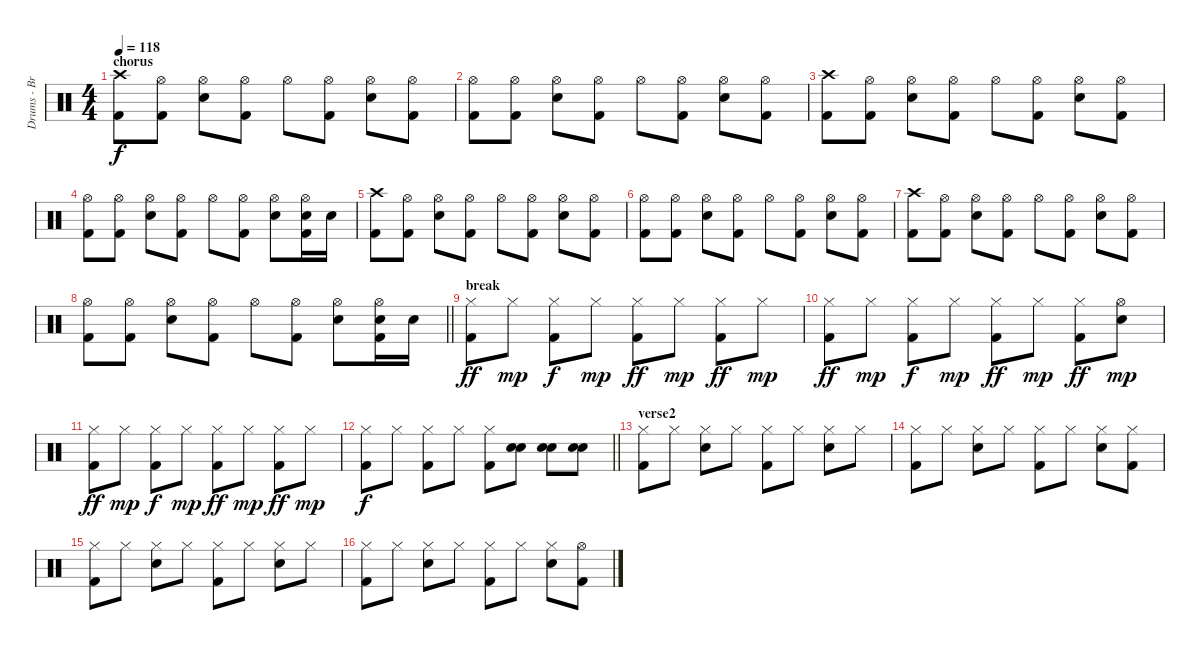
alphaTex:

\track ("Drums - Brian Young" "Drums - Br") {instrument percussion}
\staff {score}
\articulation defaults
\ts (4 4)
\section ("" "chorus")
\tempo 118
\clef neutral
\ks c
("Crash high (hit)" "Kick (hit) 2").8{dy f} ("Hi-Hat (open)" "Kick (hit) 2").8 ("Hi-Hat (open)" "Electric Snare (hit)").8 ("Hi-Hat (open)" "Kick (hit) 2").8 "Hi-Hat (open)".8 ("Hi-Hat (open)" "Kick (hit) 2").8 ("Hi-Hat (open)" "Electric Snare (hit)").8 ("Hi-Hat (open)" "Kick (hit) 2").8 |
("Hi-Hat (open)" "Kick (hit) 2").8 ("Hi-Hat (open)" "Kick (hit) 2").8 ("Hi-Hat (open)" "Electric Snare (hit)").8 ("Hi-Hat (open)" "Kick (hit) 2").8 "Hi-Hat (open)".8 ("Hi-Hat (open)" "Kick (hit) 2").8 ("Hi-Hat (open)" "Electric Snare (hit)").8 ("Hi-Hat (open)" "Kick (hit) 2").8 |
("Crash high (hit)" "Kick (hit) 2").8 ("Hi-Hat (open)" "Kick (hit) 2").8 ("Hi-Hat (open)" "Electric Snare (hit)").8 ("Hi-Hat (open)" "Kick (hit) 2").8 "Hi-Hat (open)".8 ("Hi-Hat (open)" "Kick (hit) 2").8 ("Hi-Hat (open)" "Electric Snare (hit)").8 ("Hi-Hat (open)" "Kick (hit) 2").8 |
("Hi-Hat (open)" "Kick (hit) 2").8 ("Hi-Hat (open)" "Kick (hit) 2").8 ("Hi-Hat (open)" "Electric Snare (hit)").8 ("Hi-Hat (open)" "Kick (hit) 2").8 "Hi-Hat (open)".8 ("Hi-Hat (open)" "Kick (hit) 2").8 ("Hi-Hat (open)" "Electric Snare (hit)").8 ("Hi-Hat (open)" "Electric Snare (hit)" "Kick (hit) 2").16 "Electric Snare (hit)".16 |
("Crash high (hit)" "Kick (hit) 2").8 ("Hi-Hat (open)" "Kick (hit) 2").8 ("Hi-Hat (open)" "Electric Snare (hit)").8 ("Hi-Hat (open)" "Kick (hit) 2").8 "Hi-Hat (open)".8 ("Hi-Hat (open)" "Kick (hit) 2").8 ("Hi-Hat (open)" "Electric Snare (hit)").8 ("Hi-Hat (open)" "Kick (hit) 2").8 |
("Hi-Hat (open)" "Kick (hit) 2").8 ("Hi-Hat (open)" "Kick (hit) 2").8 ("Hi-Hat (open)" "Electric Snare (hit)").8 ("Hi-Hat (open)" "Kick (hit) 2").8 "Hi-Hat (open)".8 ("Hi-Hat (open)" "Kick (hit) 2").8 ("Hi-Hat (open)" "Electric Snare (hit)").8 ("Hi-Hat (open)" "Kick (hit) 2").8 |
("Crash high (hit)" "Kick (hit) 2").8 ("Hi-Hat (open)" "Kick (hit) 2").8 ("Hi-Hat (open)" "Electric Snare (hit)").8 ("Hi-Hat (open)" "Kick (hit) 2").8 "Hi-Hat (open)".8 ("Hi-Hat (open)" "Kick (hit) 2").8 ("Hi-Hat (open)" "Electric Snare (hit)").8 ("Hi-Hat (open)" "Kick (hit) 2").8 |
\barLineRight lightlight
("Hi-Hat (open)" "Kick (hit) 2").8 ("Hi-Hat (open)" "Kick (hit) 2").8 ("Hi-Hat (open)" "Electric Snare (hit)").8 ("Hi-Hat (open)" "Kick (hit) 2").8 "Hi-Hat (open)".8 ("Hi-Hat (open)" "Kick (hit) 2").8 ("Hi-Hat (open)" "Electric Snare (hit)").8 ("Hi-Hat (open)" "Electric Snare (hit)" "Kick (hit) 2").16 "Electric Snare (hit)".16 |
\section ("" "break")
("Hi-Hat (closed)" "Kick (hit) 2").8{dy ff} "Hi-Hat (closed)".8{dy mp} ("Hi-Hat (closed)" "Kick (hit) 2").8{dy f} "Hi-Hat (closed)".8{dy mp} ("Hi-Hat (closed)" "Kick (hit) 2").8{dy ff} "Hi-Hat (closed)".8{dy mp} ("Hi-Hat (closed)" "Kick (hit) 2").8{dy ff} "Hi-Hat (closed)".8{dy mp} |
("Hi-Hat (closed)" "Kick (hit) 2").8{dy ff} "Hi-Hat (closed)".8{dy mp} ("Hi-Hat (closed)" "Kick (hit) 2").8{dy f} "Hi-Hat (closed)".8{dy mp} ("Hi-Hat (closed)" "Kick (hit) 2").8{dy ff} "Hi-Hat (closed)".8{dy mp} ("Hi-Hat (closed)" "Kick (hit) 2").8{dy ff} ("Hi-Hat (open)" "Electric Snare (hit)").8{dy mp} |
("Hi-Hat (closed)" "Kick (hit) 2").8{dy ff} "Hi-Hat (closed)".8{dy mp} ("Hi-Hat (closed)" "Kick (hit) 2").8{dy f} "Hi-Hat (closed)".8{dy mp} ("Hi-Hat (closed)" "Kick (hit) 2").8{dy ff} "Hi-Hat (closed)".8{dy mp} ("Hi-Hat (closed)" "Kick (hit) 2").8{dy ff} "Hi-Hat (closed)".8{dy mp} |
\barLineRight lightlight
("Hi-Hat (closed)" "Kick (hit) 2").8{dy f} "Hi-Hat (closed)".8 ("Hi-Hat (closed)" "Kick (hit) 2").8 "Hi-Hat (closed)".8 ("Hi-Hat (closed)" "Kick (hit) 2").8 ("Hand Clap (hit)" "Electric Snare (hit)").8 ("Hand Clap (hit)" "Electric Snare (hit)").8 ("Hand Clap (hit)" "Electric Snare (hit)").8 |
\section ("" "verse2")
("Hi-Hat (closed)" "Kick (hit) 2").8 "Hi-Hat (closed)".8 ("Hi-Hat (closed)" "Electric Snare (hit)").8 "Hi-Hat (closed)".8 ("Hi-Hat (closed)" "Kick (hit) 2").8 "Hi-Hat (closed)".8 ("Hi-Hat (closed)" "Electric Snare (hit)").8 "Hi-Hat (closed)".8 |
("Hi-Hat (closed)" "Kick (hit) 2").8 "Hi-Hat (closed)".8 ("Hi-Hat (closed)" "Electric Snare (hit)").8 "Hi-Hat (closed)".8 ("Hi-Hat (closed)" "Kick (hit) 2").8 "Hi-Hat (closed)".8 ("Hi-Hat (closed)" "Electric Snare (hit)").8 ("Hi-Hat (closed)" "Kick (hit) 2").8 |
("Hi-Hat (closed)" "Kick (hit) 2").8 "Hi-Hat (closed)".8 ("Hi-Hat (closed)" "Electric Snare (hit)").8 "Hi-Hat (closed)".8 ("Hi-Hat (closed)" "Kick (hit) 2").8 "Hi-Hat (closed)".8 ("Hi-Hat (closed)" "Electric Snare (hit)").8 "Hi-Hat (closed)".8 |
("Hi-Hat (closed)" "Kick (hit) 2").8 "Hi-Hat (closed)".8 ("Hi-Hat (closed)" "Electric Snare (hit)").8 "Hi-Hat (closed)".8 ("Hi-Hat (closed)" "Kick (hit) 2").8 "Hi-Hat (closed)".8 ("Hi-Hat (closed)" "Electric Snare (hit)").8 ("Hi-Hat (open)" "Kick (hit) 2").8
